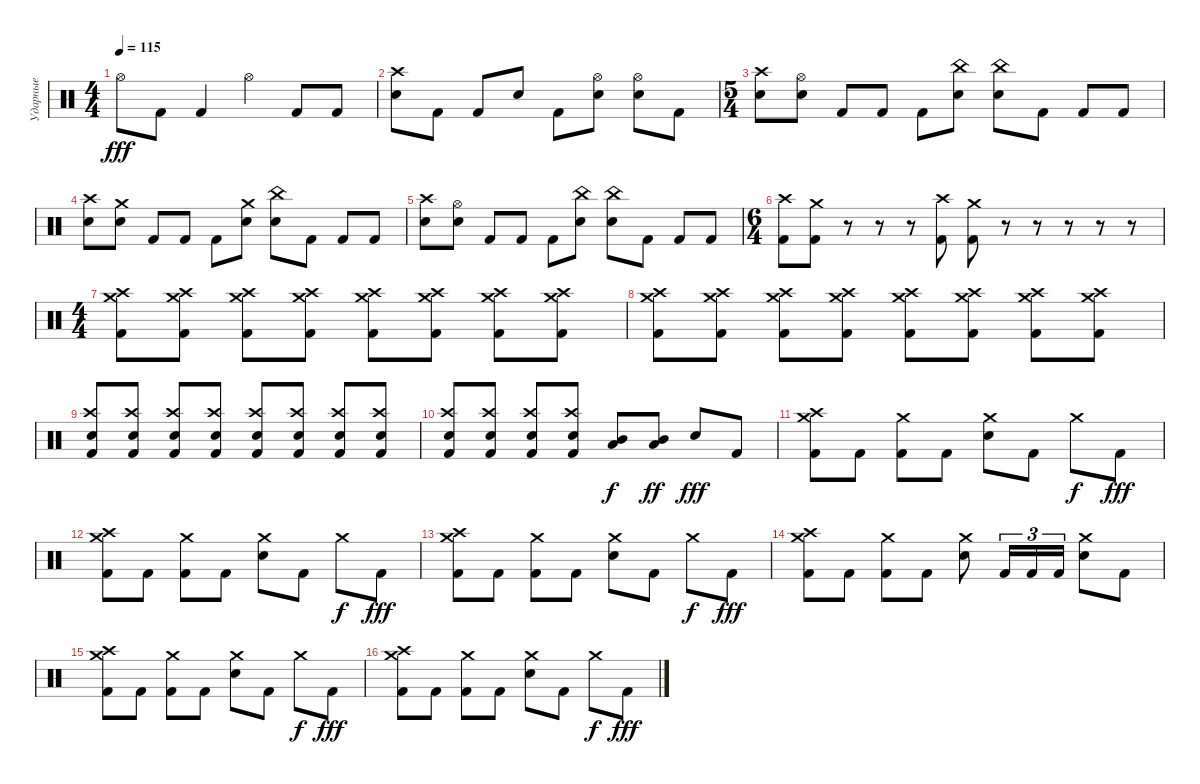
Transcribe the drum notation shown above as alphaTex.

\track ("Ударные" "Ударные") {instrument percussion}
\staff {score}
\articulation defaults
\ts (4 4)
\tempo 115
\clef neutral
\ks c "Hi-Hat (open)".8{dy fff} "Kick (hit) 2".8 "Kick (hit) 2".4 "Hi-Hat (open)".4 "Kick (hit) 2".8 "Kick (hit) 2".8
|
("Crash high (hit)" "Electric Snare (hit)").8 "Kick (hit) 2".8 "Kick (hit) 2".8 "Electric Snare (hit)".8 "Kick (hit) 2".8 ("Hi-Hat (open)" "Electric Snare (hit)").8 ("Hi-Hat (open)" "Electric Snare (hit)").8 "Kick (hit) 2".8 |
\ts (5 4)
("Crash high (hit)" "Electric Snare (hit)").8 ("Hi-Hat (open)" "Electric Snare (hit)").8 "Kick (hit) 2".8 "Kick (hit) 2".8 "Kick (hit) 2".8 ("China (hit)" "Electric Snare (hit)").8 ("China (hit)" "Electric Snare (hit)").8 "Kick (hit) 2".8 "Kick (hit) 2".8 "Kick (hit) 2".8 |
("Crash high (hit)" "Electric Snare (hit)").8 ("Crash medium (hit)" "Electric Snare (hit)").8 "Kick (hit) 2".8 "Kick (hit) 2".8 "Kick (hit) 2".8 ("Crash medium (hit)" "Electric Snare (hit)").8 ("China (hit)" "Electric Snare (hit)").8 "Kick (hit) 2".8 "Kick (hit) 2".8 "Kick (hit) 2".8 |
("Crash high (hit)" "Electric Snare (hit)").8 ("Hi-Hat (open)" "Electric Snare (hit)").8 "Kick (hit) 2".8 "Kick (hit) 2".8 "Kick (hit) 2".8 ("China (hit)" "Electric Snare (hit)").8 ("China (hit)" "Electric Snare (hit)").8 "Kick (hit) 2".8 "Kick (hit) 2".8 "Kick (hit) 2".8 |
\ts (6 4)
("Crash high (hit)" "Kick (hit) 2").8 ("Crash medium (hit)" "Kick (hit) 2").8 r.8{volume 0} r.8 r.8 ("Crash high (hit)" "Kick (hit) 2").8{volume 13} ("Crash medium (hit)" "Kick (hit) 2").8 r.8{volume 0} r.8 r.8 r.8 r.8 |
\ts (4 4)
("Crash high (hit)" "Crash medium (hit)" "Kick (hit) 2").8{volume 13} ("Crash high (hit)" "Crash medium (hit)" "Kick (hit) 2").8 ("Crash high (hit)" "Crash medium (hit)" "Kick (hit) 2").8 ("Crash high (hit)" "Crash medium (hit)" "Kick (hit) 2").8 ("Crash high (hit)" "Crash medium (hit)" "Kick (hit) 2").8 ("Crash high (hit)" "Crash medium (hit)" "Kick (hit) 2").8 ("Crash high (hit)" "Crash medium (hit)" "Kick (hit) 2").8 ("Crash high (hit)" "Crash medium (hit)" "Kick (hit) 2").8 |
("Crash high (hit)" "Crash medium (hit)" "Kick (hit) 2").8 ("Crash high (hit)" "Crash medium (hit)" "Kick (hit) 2").8 ("Crash high (hit)" "Crash medium (hit)" "Kick (hit) 2").8 ("Crash high (hit)" "Crash medium (hit)" "Kick (hit) 2").8 ("Crash high (hit)" "Crash medium (hit)" "Kick (hit) 2").8 ("Crash high (hit)" "Crash medium (hit)" "Kick (hit) 2").8 ("Crash high (hit)" "Crash medium (hit)" "Kick (hit) 2").8 ("Crash high (hit)" "Crash medium (hit)" "Kick (hit) 2").8 |
("Crash high (hit)" "Electric Snare (hit)" "Kick (hit) 2").8 ("Crash high (hit)" "Electric Snare (hit)" "Kick (hit) 2").8 ("Crash high (hit)" "Electric Snare (hit)" "Kick (hit) 2").8 ("Crash high (hit)" "Electric Snare (hit)" "Kick (hit) 2").8 ("Crash high (hit)" "Electric Snare (hit)" "Kick (hit) 2").8 ("Crash high (hit)" "Electric Snare (hit)" "Kick (hit) 2").8 ("Crash high (hit)" "Electric Snare (hit)" "Kick (hit) 2").8 ("Crash high (hit)" "Electric Snare (hit)" "Kick (hit) 2").8 |
("Crash high (hit)" "Electric Snare (hit)" "Kick (hit) 2").8 ("Crash high (hit)" "Electric Snare (hit)" "Kick (hit) 2").8 ("Crash high (hit)" "Electric Snare (hit)" "Kick (hit) 2").8 ("Crash high (hit)" "Electric Snare (hit)" "Kick (hit) 2").8 ("Mid Tom (hit)" "Low Floor Tom (hit)").8{dy f} ("Mid Tom (hit)" "Low Floor Tom (hit)").8{dy ff} "Electric Snare (hit)".8{dy fff} "Kick (hit) 2".8 |
("Crash high (hit)" "Crash medium (hit)" "Kick (hit) 2").8 "Kick (hit) 2".8 ("Crash medium (hit)" "Kick (hit) 2").8 "Kick (hit) 2".8 ("Crash medium (hit)" "Electric Snare (hit)").8 "Kick (hit) 2".8 "Crash medium (hit)".8{dy f} "Kick (hit) 2".8{dy fff} |
("Crash high (hit)" "Crash medium (hit)" "Kick (hit) 2").8 "Kick (hit) 2".8 ("Crash medium (hit)" "Kick (hit) 2").8 "Kick (hit) 2".8 ("Crash medium (hit)" "Electric Snare (hit)").8 "Kick (hit) 2".8 "Crash medium (hit)".8{dy f} "Kick (hit) 2".8{dy fff} |
("Crash high (hit)" "Crash medium (hit)" "Kick (hit) 2").8 "Kick (hit) 2".8 ("Crash medium (hit)" "Kick (hit) 2").8 "Kick (hit) 2".8 ("Crash medium (hit)" "Electric Snare (hit)").8 "Kick (hit) 2".8 "Crash medium (hit)".8{dy f} "Kick (hit) 2".8{dy fff} |
("Crash high (hit)" "Crash medium (hit)" "Kick (hit) 2").8 "Kick (hit) 2".8 ("Crash medium (hit)" "Kick (hit) 2").8 "Kick (hit) 2".8 ("Crash medium (hit)" "Electric Snare (hit)").8 "Kick (hit) 2".16{tu (3 2)} "Kick (hit) 2".16{tu (3 2)} "Kick (hit) 2".16{tu (3 2)} ("Crash medium (hit)" "Electric Snare (hit)").8 "Kick (hit) 2".8 |
("Crash high (hit)" "Crash medium (hit)" "Kick (hit) 2").8 "Kick (hit) 2".8 ("Crash medium (hit)" "Kick (hit) 2").8 "Kick (hit) 2".8 ("Crash medium (hit)" "Electric Snare (hit)").8 "Kick (hit) 2".8 "Crash medium (hit)".8{dy f} "Kick (hit) 2".8{dy fff} |
("Crash high (hit)" "Crash medium (hit)" "Kick (hit) 2").8 "Kick (hit) 2".8 ("Crash medium (hit)" "Kick (hit) 2").8 "Kick (hit) 2".8 ("Crash medium (hit)" "Electric Snare (hit)").8 "Kick (hit) 2".8 "Crash medium (hit)".8{dy f} "Kick (hit) 2".8{dy fff}
